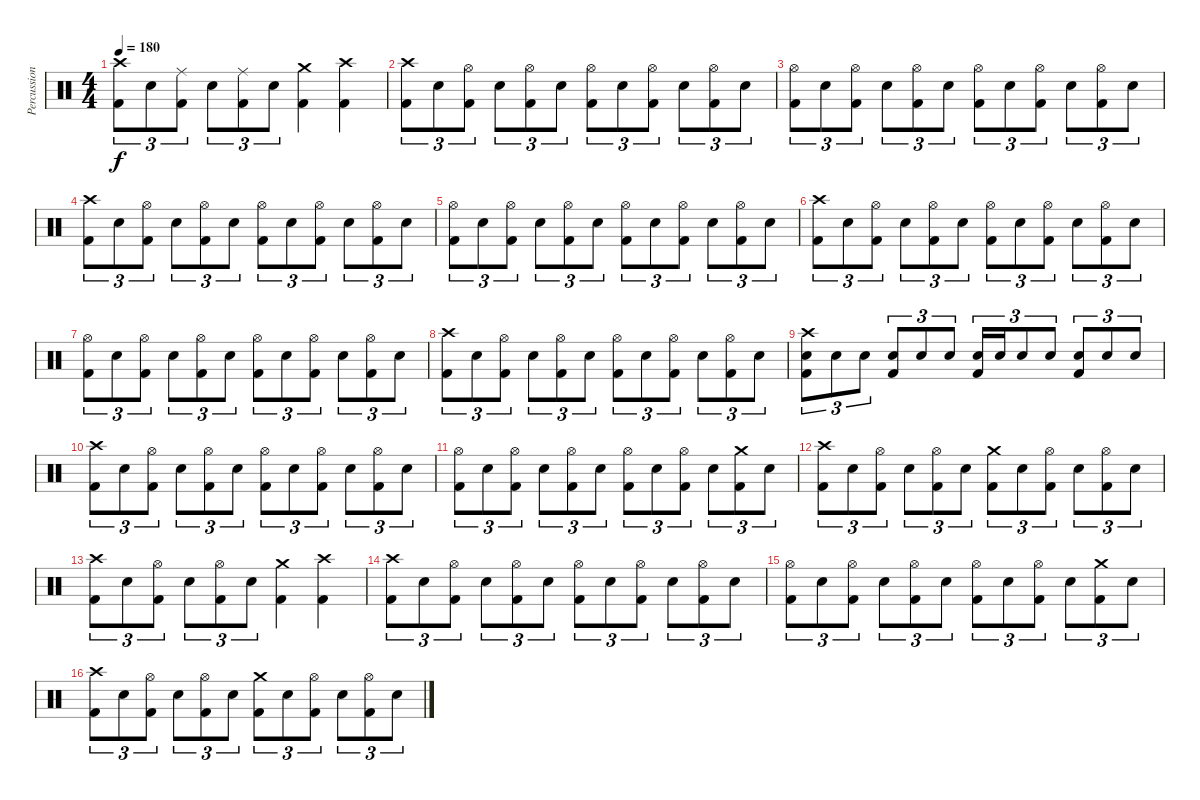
\track ("Percussion" "Percussion") {instrument percussion}
\staff {score}
\articulation defaults
\ts (4 4)
\tempo 180
\clef neutral
\ks c
("Crash high (hit)" "Kick (hit) 2").8{tu (3 2) dy f} "Electric Snare (hit)".8{tu (3 2)} ("Ride (middle)" "Kick (hit) 2").8{tu (3 2)} "Electric Snare (hit)".8{tu (3 2)} ("Ride (middle)" "Kick (hit) 2").8{tu (3 2)} "Electric Snare (hit)".8{tu (3 2)} ("Crash medium (hit)" "Kick (hit) 2").4 ("Crash high (hit)" "Kick (hit) 2").4 |
("Crash high (hit)" "Kick (hit) 2").8{tu (3 2)} "Electric Snare (hit)".8{tu (3 2)} ("Hi-Hat (open)" "Kick (hit) 2").8{tu (3 2)} "Electric Snare (hit)".8{tu (3 2)} ("Hi-Hat (open)" "Kick (hit) 2").8{tu (3 2)} "Electric Snare (hit)".8{tu (3 2)} ("Hi-Hat (open)" "Kick (hit) 2").8{tu (3 2)} "Electric Snare (hit)".8{tu (3 2)} ("Hi-Hat (open)" "Kick (hit) 2").8{tu (3 2)} "Electric Snare (hit)".8{tu (3 2)} ("Hi-Hat (open)" "Kick (hit) 2").8{tu (3 2)} "Electric Snare (hit)".8{tu (3 2)} |
("Hi-Hat (open)" "Kick (hit) 2").8{tu (3 2)} "Electric Snare (hit)".8{tu (3 2)} ("Hi-Hat (open)" "Kick (hit) 2").8{tu (3 2)} "Electric Snare (hit)".8{tu (3 2)} ("Hi-Hat (open)" "Kick (hit) 2").8{tu (3 2)} "Electric Snare (hit)".8{tu (3 2)} ("Hi-Hat (open)" "Kick (hit) 2").8{tu (3 2)} "Electric Snare (hit)".8{tu (3 2)} ("Hi-Hat (open)" "Kick (hit) 2").8{tu (3 2)} "Electric Snare (hit)".8{tu (3 2)} ("Hi-Hat (open)" "Kick (hit) 2").8{tu (3 2)} "Electric Snare (hit)".8{tu (3 2)} |
("Crash high (hit)" "Kick (hit) 2").8{tu (3 2)} "Electric Snare (hit)".8{tu (3 2)} ("Hi-Hat (open)" "Kick (hit) 2").8{tu (3 2)} "Electric Snare (hit)".8{tu (3 2)} ("Hi-Hat (open)" "Kick (hit) 2").8{tu (3 2)} "Electric Snare (hit)".8{tu (3 2)} ("Hi-Hat (open)" "Kick (hit) 2").8{tu (3 2)} "Electric Snare (hit)".8{tu (3 2)} ("Hi-Hat (open)" "Kick (hit) 2").8{tu (3 2)} "Electric Snare (hit)".8{tu (3 2)} ("Hi-Hat (open)" "Kick (hit) 2").8{tu (3 2)} "Electric Snare (hit)".8{tu (3 2)} |
("Hi-Hat (open)" "Kick (hit) 2").8{tu (3 2)} "Electric Snare (hit)".8{tu (3 2)} ("Hi-Hat (open)" "Kick (hit) 2").8{tu (3 2)} "Electric Snare (hit)".8{tu (3 2)} ("Hi-Hat (open)" "Kick (hit) 2").8{tu (3 2)} "Electric Snare (hit)".8{tu (3 2)} ("Hi-Hat (open)" "Kick (hit) 2").8{tu (3 2)} "Electric Snare (hit)".8{tu (3 2)} ("Hi-Hat (open)" "Kick (hit) 2").8{tu (3 2)} "Electric Snare (hit)".8{tu (3 2)} ("Hi-Hat (open)" "Kick (hit) 2").8{tu (3 2)} "Electric Snare (hit)".8{tu (3 2)} |
("Crash high (hit)" "Kick (hit) 2").8{tu (3 2)} "Electric Snare (hit)".8{tu (3 2)} ("Hi-Hat (open)" "Kick (hit) 2").8{tu (3 2)} "Electric Snare (hit)".8{tu (3 2)} ("Hi-Hat (open)" "Kick (hit) 2").8{tu (3 2)} "Electric Snare (hit)".8{tu (3 2)} ("Hi-Hat (open)" "Kick (hit) 2").8{tu (3 2)} "Electric Snare (hit)".8{tu (3 2)} ("Hi-Hat (open)" "Kick (hit) 2").8{tu (3 2)} "Electric Snare (hit)".8{tu (3 2)} ("Hi-Hat (open)" "Kick (hit) 2").8{tu (3 2)} "Electric Snare (hit)".8{tu (3 2)} |
("Hi-Hat (open)" "Kick (hit) 2").8{tu (3 2)} "Electric Snare (hit)".8{tu (3 2)} ("Hi-Hat (open)" "Kick (hit) 2").8{tu (3 2)} "Electric Snare (hit)".8{tu (3 2)} ("Hi-Hat (open)" "Kick (hit) 2").8{tu (3 2)} "Electric Snare (hit)".8{tu (3 2)} ("Hi-Hat (open)" "Kick (hit) 2").8{tu (3 2)} "Electric Snare (hit)".8{tu (3 2)} ("Hi-Hat (open)" "Kick (hit) 2").8{tu (3 2)} "Electric Snare (hit)".8{tu (3 2)} ("Hi-Hat (open)" "Kick (hit) 2").8{tu (3 2)} "Electric Snare (hit)".8{tu (3 2)} |
("Crash high (hit)" "Kick (hit) 2").8{tu (3 2)} "Electric Snare (hit)".8{tu (3 2)} ("Hi-Hat (open)" "Kick (hit) 2").8{tu (3 2)} "Electric Snare (hit)".8{tu (3 2)} ("Hi-Hat (open)" "Kick (hit) 2").8{tu (3 2)} "Electric Snare (hit)".8{tu (3 2)} ("Hi-Hat (open)" "Kick (hit) 2").8{tu (3 2)} "Electric Snare (hit)".8{tu (3 2)} ("Hi-Hat (open)" "Kick (hit) 2").8{tu (3 2)} "Electric Snare (hit)".8{tu (3 2)} ("Hi-Hat (open)" "Kick (hit) 2").8{tu (3 2)} "Electric Snare (hit)".8{tu (3 2)} |
("Crash high (hit)" "Electric Snare (hit)" "Kick (hit) 2").8{tu (3 2)} "Electric Snare (hit)".8{tu (3 2)} "Electric Snare (hit)".8{tu (3 2)} ("Electric Snare (hit)" "Kick (hit) 2").8{tu (3 2)} "Electric Snare (hit)".8{tu (3 2)} "Electric Snare (hit)".8{tu (3 2)} ("Electric Snare (hit)" "Kick (hit) 2").16{tu (3 2)} "Electric Snare (hit)".16{tu (3 2)} "Electric Snare (hit)".8{tu (3 2)} "Electric Snare (hit)".8{tu (3 2)} ("Electric Snare (hit)" "Kick (hit) 2").8{tu (3 2)} "Electric Snare (hit)".8{tu (3 2)} "Electric Snare (hit)".8{tu (3 2)} |
("Crash high (hit)" "Kick (hit) 2").8{tu (3 2)} "Electric Snare (hit)".8{tu (3 2)} ("Hi-Hat (open)" "Kick (hit) 2").8{tu (3 2)} "Electric Snare (hit)".8{tu (3 2)} ("Hi-Hat (open)" "Kick (hit) 2").8{tu (3 2)} "Electric Snare (hit)".8{tu (3 2)} ("Hi-Hat (open)" "Kick (hit) 2").8{tu (3 2)} "Electric Snare (hit)".8{tu (3 2)} ("Hi-Hat (open)" "Kick (hit) 2").8{tu (3 2)} "Electric Snare (hit)".8{tu (3 2)} ("Hi-Hat (open)" "Kick (hit) 2").8{tu (3 2)} "Electric Snare (hit)".8{tu (3 2)} |
("Hi-Hat (open)" "Kick (hit) 2").8{tu (3 2)} "Electric Snare (hit)".8{tu (3 2)} ("Hi-Hat (open)" "Kick (hit) 2").8{tu (3 2)} "Electric Snare (hit)".8{tu (3 2)} ("Hi-Hat (open)" "Kick (hit) 2").8{tu (3 2)} "Electric Snare (hit)".8{tu (3 2)} ("Hi-Hat (open)" "Kick (hit) 2").8{tu (3 2)} "Electric Snare (hit)".8{tu (3 2)} ("Hi-Hat (open)" "Kick (hit) 2").8{tu (3 2)} "Electric Snare (hit)".8{tu (3 2)} ("Crash medium (hit)" "Kick (hit) 2").8{tu (3 2)} "Electric Snare (hit)".8{tu (3 2)} |
("Crash high (hit)" "Kick (hit) 2").8{tu (3 2)} "Electric Snare (hit)".8{tu (3 2)} ("Hi-Hat (open)" "Kick (hit) 2").8{tu (3 2)} "Electric Snare (hit)".8{tu (3 2)} ("Hi-Hat (open)" "Kick (hit) 2").8{tu (3 2)} "Electric Snare (hit)".8{tu (3 2)} ("Crash medium (hit)" "Kick (hit) 2").8{tu (3 2)} "Electric Snare (hit)".8{tu (3 2)} ("Hi-Hat (open)" "Kick (hit) 2").8{tu (3 2)} "Electric Snare (hit)".8{tu (3 2)} ("Hi-Hat (open)" "Kick (hit) 2").8{tu (3 2)} "Electric Snare (hit)".8{tu (3 2)} |
("Crash high (hit)" "Kick (hit) 2").8{tu (3 2)} "Electric Snare (hit)".8{tu (3 2)} ("Hi-Hat (open)" "Kick (hit) 2").8{tu (3 2)} "Electric Snare (hit)".8{tu (3 2)} ("Hi-Hat (open)" "Kick (hit) 2").8{tu (3 2)} "Electric Snare (hit)".8{tu (3 2)} ("Crash medium (hit)" "Kick (hit) 2").4 ("Crash high (hit)" "Kick (hit) 2").4 |
("Crash high (hit)" "Kick (hit) 2").8{tu (3 2)} "Electric Snare (hit)".8{tu (3 2)} ("Hi-Hat (open)" "Kick (hit) 2").8{tu (3 2)} "Electric Snare (hit)".8{tu (3 2)} ("Hi-Hat (open)" "Kick (hit) 2").8{tu (3 2)} "Electric Snare (hit)".8{tu (3 2)} ("Hi-Hat (open)" "Kick (hit) 2").8{tu (3 2)} "Electric Snare (hit)".8{tu (3 2)} ("Hi-Hat (open)" "Kick (hit) 2").8{tu (3 2)} "Electric Snare (hit)".8{tu (3 2)} ("Hi-Hat (open)" "Kick (hit) 2").8{tu (3 2)} "Electric Snare (hit)".8{tu (3 2)} |
("Hi-Hat (open)" "Kick (hit) 2").8{tu (3 2)} "Electric Snare (hit)".8{tu (3 2)} ("Hi-Hat (open)" "Kick (hit) 2").8{tu (3 2)} "Electric Snare (hit)".8{tu (3 2)} ("Hi-Hat (open)" "Kick (hit) 2").8{tu (3 2)} "Electric Snare (hit)".8{tu (3 2)} ("Hi-Hat (open)" "Kick (hit) 2").8{tu (3 2)} "Electric Snare (hit)".8{tu (3 2)} ("Hi-Hat (open)" "Kick (hit) 2").8{tu (3 2)} "Electric Snare (hit)".8{tu (3 2)} ("Crash medium (hit)" "Kick (hit) 2").8{tu (3 2)} "Electric Snare (hit)".8{tu (3 2)} |
("Crash high (hit)" "Kick (hit) 2").8{tu (3 2)} "Electric Snare (hit)".8{tu (3 2)} ("Hi-Hat (open)" "Kick (hit) 2").8{tu (3 2)} "Electric Snare (hit)".8{tu (3 2)} ("Hi-Hat (open)" "Kick (hit) 2").8{tu (3 2)} "Electric Snare (hit)".8{tu (3 2)} ("Crash medium (hit)" "Kick (hit) 2").8{tu (3 2)} "Electric Snare (hit)".8{tu (3 2)} ("Hi-Hat (open)" "Kick (hit) 2").8{tu (3 2)} "Electric Snare (hit)".8{tu (3 2)} ("Hi-Hat (open)" "Kick (hit) 2").8{tu (3 2)} "Electric Snare (hit)".8{tu (3 2)}
